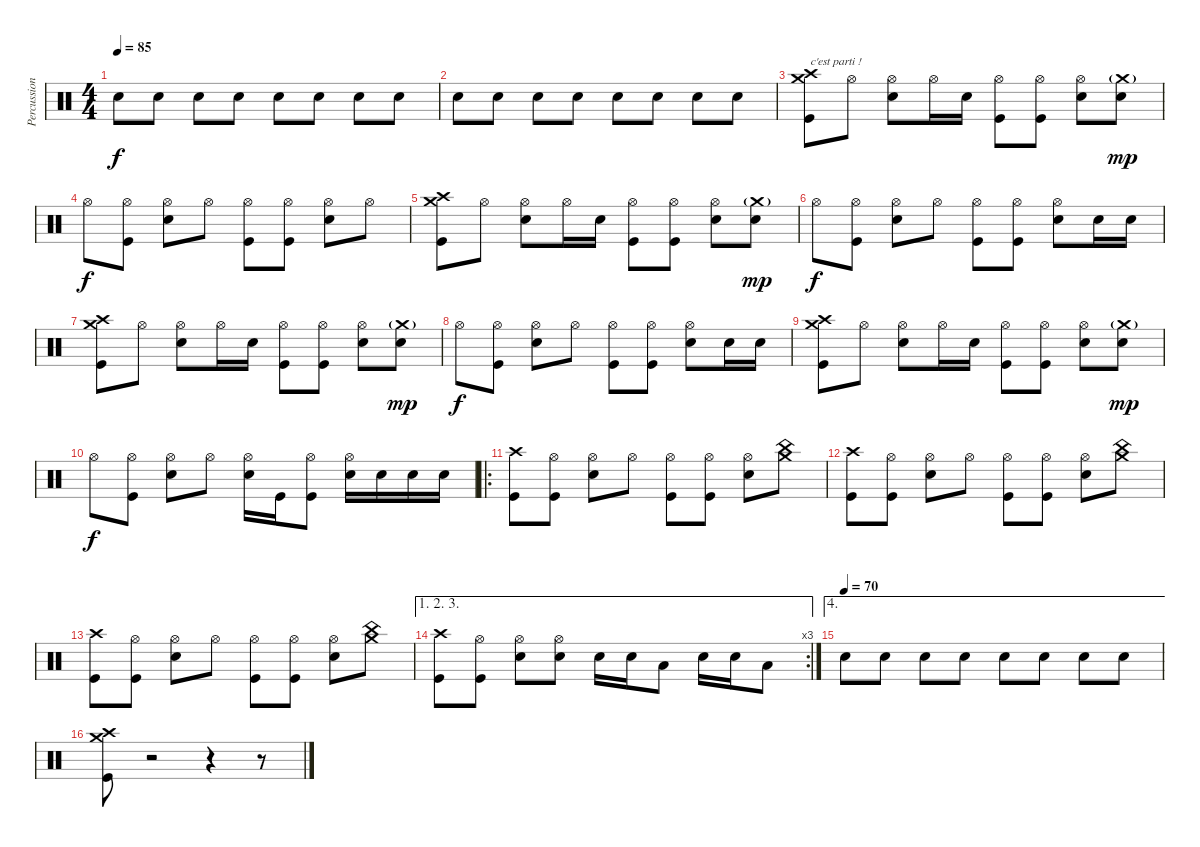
\track ("Percussions" "Percussion") {instrument percussion}
\staff {score}
\articulation defaults
\ts (4 4)
\tempo 85
\clef neutral
\ks c "Snare (hit) 2".8{dy f} "Snare (hit) 2".8 "Snare (hit) 2".8 "Snare (hit) 2".8 "Snare (hit) 2".8 "Snare (hit) 2".8 "Snare (hit) 2".8 "Snare (hit) 2".8
|
"Snare (hit) 2".8 "Snare (hit) 2".8 "Snare (hit) 2".8 "Snare (hit) 2".8 "Snare (hit) 2".8 "Snare (hit) 2".8 "Snare (hit) 2".8 "Snare (hit) 2".8 |
("Crash high (hit)" "Crash medium (hit)" "Kick (hit)").8{txt "c'est parti !" volume 12} "Hi-Hat (open)".8 ("Hi-Hat (open)" "Electric Snare (hit)").8 "Hi-Hat (open)".16 "Electric Snare (hit)".16 ("Hi-Hat (open)" "Kick (hit)").8 ("Hi-Hat (open)" "Kick (hit)").8 ("Hi-Hat (open)" "Electric Snare (hit)").8 ("Crash medium (hit)"{g} "Snare (hit) 2").8{dy mp} |
"Hi-Hat (open)".8{dy f} ("Hi-Hat (open)" "Kick (hit)").8 ("Hi-Hat (open)" "Electric Snare (hit)").8 "Hi-Hat (open)".8 ("Hi-Hat (open)" "Kick (hit)").8 ("Hi-Hat (open)" "Kick (hit)").8 ("Hi-Hat (open)" "Electric Snare (hit)").8 "Hi-Hat (open)".8 |
("Crash high (hit)" "Crash medium (hit)" "Kick (hit)").8 "Hi-Hat (open)".8 ("Hi-Hat (open)" "Electric Snare (hit)").8 "Hi-Hat (open)".16 "Electric Snare (hit)".16 ("Hi-Hat (open)" "Kick (hit)").8 ("Hi-Hat (open)" "Kick (hit)").8 ("Hi-Hat (open)" "Electric Snare (hit)").8 ("Crash medium (hit)"{g} "Snare (hit) 2").8{dy mp} |
"Hi-Hat (open)".8{dy f} ("Hi-Hat (open)" "Kick (hit)").8 ("Hi-Hat (open)" "Electric Snare (hit)").8 "Hi-Hat (open)".8 ("Hi-Hat (open)" "Kick (hit)").8 ("Hi-Hat (open)" "Kick (hit)").8 ("Hi-Hat (open)" "Electric Snare (hit)").8 "Snare (hit) 2".16 "Snare (hit) 2".16 |
("Crash high (hit)" "Crash medium (hit)" "Kick (hit)").8 "Hi-Hat (open)".8 ("Hi-Hat (open)" "Electric Snare (hit)").8 "Hi-Hat (open)".16 "Electric Snare (hit)".16 ("Hi-Hat (open)" "Kick (hit)").8 ("Hi-Hat (open)" "Kick (hit)").8 ("Hi-Hat (open)" "Electric Snare (hit)").8 ("Crash medium (hit)"{g} "Snare (hit) 2").8{dy mp} |
"Hi-Hat (open)".8{dy f} ("Hi-Hat (open)" "Kick (hit)").8 ("Hi-Hat (open)" "Electric Snare (hit)").8 "Hi-Hat (open)".8 ("Hi-Hat (open)" "Kick (hit)").8 ("Hi-Hat (open)" "Kick (hit)").8 ("Hi-Hat (open)" "Electric Snare (hit)").8 "Snare (hit) 2".16 "Snare (hit) 2".16 |
("Crash high (hit)" "Crash medium (hit)" "Kick (hit)").8 "Hi-Hat (open)".8 ("Hi-Hat (open)" "Electric Snare (hit)").8 "Hi-Hat (open)".16 "Electric Snare (hit)".16 ("Hi-Hat (open)" "Kick (hit)").8 ("Hi-Hat (open)" "Kick (hit)").8 ("Hi-Hat (open)" "Electric Snare (hit)").8 ("Crash medium (hit)"{g} "Snare (hit) 2").8{dy mp} |
"Hi-Hat (open)".8{dy f} ("Hi-Hat (open)" "Kick (hit)").8 ("Hi-Hat (open)" "Electric Snare (hit)").8 "Hi-Hat (open)".8 ("Hi-Hat (open)" "Electric Snare (hit)").16 "Kick (hit)".16 ("Hi-Hat (open)" "Kick (hit)").8 ("Hi-Hat (open)" "Snare (hit) 2").16 "Snare (hit) 2".16 "Snare (hit) 2".16 "Snare (hit) 2".16 |
\ro
("Crash high (hit)" "Kick (hit)").8 ("Hi-Hat (open)" "Kick (hit)").8 ("Hi-Hat (open)" "Electric Snare (hit)").8 "Hi-Hat (open)".8 ("Hi-Hat (open)" "Kick (hit)").8 ("Hi-Hat (open)" "Kick (hit)").8 ("Hi-Hat (open)" "Electric Snare (hit)").8 ("Crash medium (hit)" "China (hit)").8 |
("Crash high (hit)" "Kick (hit)").8 ("Hi-Hat (open)" "Kick (hit)").8 ("Hi-Hat (open)" "Electric Snare (hit)").8 "Hi-Hat (open)".8 ("Hi-Hat (open)" "Kick (hit)").8 ("Hi-Hat (open)" "Kick (hit)").8 ("Hi-Hat (open)" "Electric Snare (hit)").8 ("Crash medium (hit)" "China (hit)").8 |
("Crash high (hit)" "Kick (hit)").8 ("Hi-Hat (open)" "Kick (hit)").8 ("Hi-Hat (open)" "Electric Snare (hit)").8 "Hi-Hat (open)".8 ("Hi-Hat (open)" "Kick (hit)").8 ("Hi-Hat (open)" "Kick (hit)").8 ("Hi-Hat (open)" "Electric Snare (hit)").8 ("Crash medium (hit)" "China (hit)").8 |
\ae (1 2 3)
\rc 3
("Crash high (hit)" "Kick (hit)").8 ("Hi-Hat (open)" "Kick (hit)").8 ("Hi-Hat (open)" "Electric Snare (hit)").8 ("Hi-Hat (open)" "Electric Snare (hit)").8 "Electric Snare (hit)".16 "Electric Snare (hit)".16 "Low Tom (hit)".8 "Electric Snare (hit)".16 "Electric Snare (hit)".16 "Low Tom (hit)".8 |
\ae 4
\tempo (70)
"Snare (hit) 2".8 "Snare (hit) 2".8 "Snare (hit) 2".8 "Snare (hit) 2".8 "Snare (hit) 2".8 "Snare (hit) 2".8 "Snare (hit) 2".8 "Snare (hit) 2".8 |
("Crash high (hit)" "Crash medium (hit)" "Kick (hit)").8 r.2 r.4 r.8
